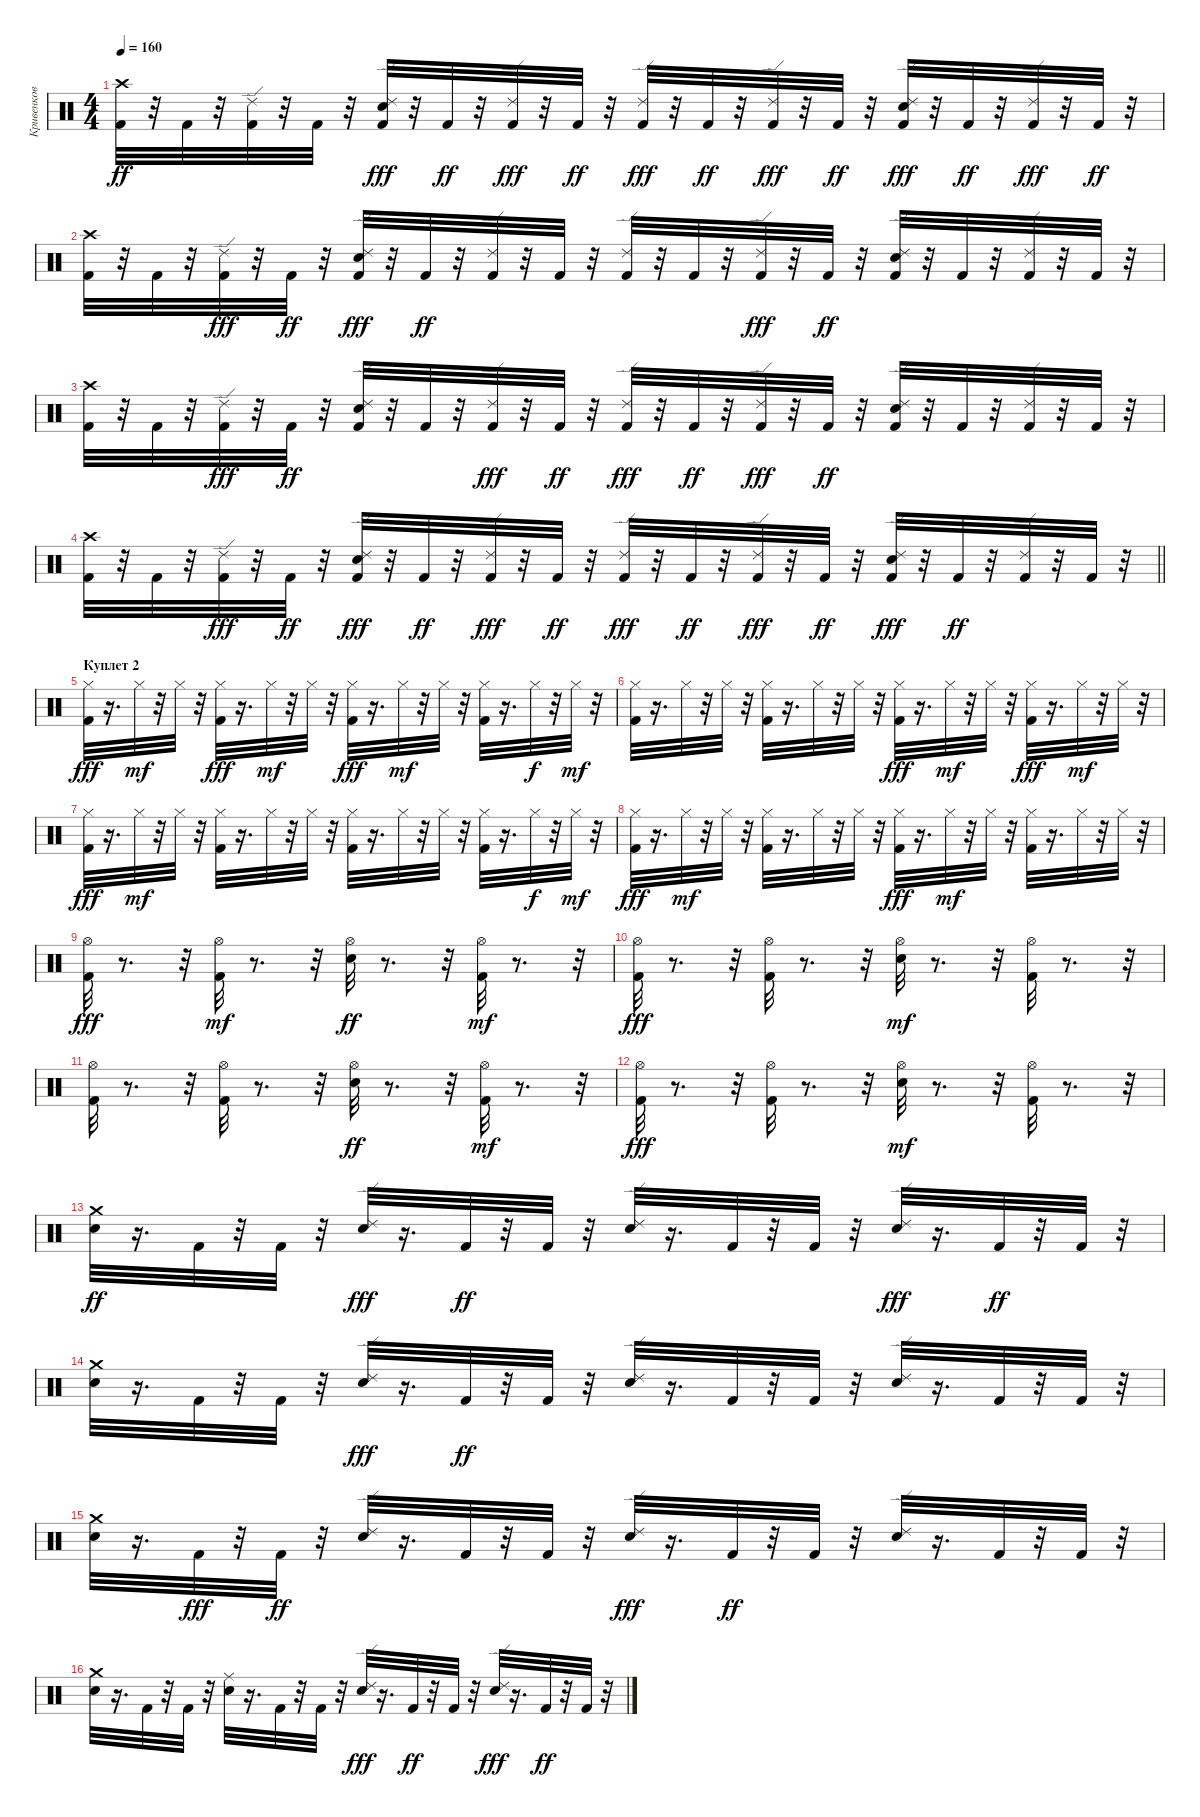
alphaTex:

\track ("Кривенков" "Кривенков") {instrument percussion}
\staff {score}
\articulation defaults
\ts (4 4)
\tempo 160
\clef neutral
\ks c
("Crash high (hit)" "Kick (hit) 2").32{dy ff} r.32 "Kick (hit) 2".32 r.32 ("Ride (edge) 2" "Kick (hit) 2").32 r.32 "Kick (hit) 2".32 r.32 ("Electric Snare (hit)" "Kick (hit) 2" "Ride (edge) 2").32{dy fff} r.32 "Kick (hit) 2".32{dy ff} r.32 ("Kick (hit) 2" "Ride (edge) 2").32{dy fff} r.32 "Kick (hit) 2".32{dy ff} r.32 ("Kick (hit) 2" "Ride (edge) 2").32{dy fff} r.32 "Kick (hit) 2".32{dy ff} r.32 ("Kick (hit) 2" "Ride (edge) 2").32{dy fff} r.32 "Kick (hit) 2".32{dy ff} r.32 ("Electric Snare (hit)" "Kick (hit) 2" "Ride (edge) 2").32{dy fff} r.32 "Kick (hit) 2".32{dy ff} r.32 ("Kick (hit) 2" "Ride (edge) 2").32{dy fff} r.32 "Kick (hit) 2".32{dy ff} r.32 |
("Crash high (hit)" "Kick (hit) 2").32 r.32 "Kick (hit) 2".32 r.32 ("Kick (hit) 2" "Ride (edge) 2").32{dy fff} r.32 "Kick (hit) 2".32{dy ff} r.32 ("Kick (hit) 2" "Electric Snare (hit)" "Ride (edge) 2").32{dy fff} r.32 "Kick (hit) 2".32{dy ff} r.32 ("Ride (edge) 2" "Kick (hit) 2").32 r.32 "Kick (hit) 2".32 r.32 ("Ride (edge) 2" "Kick (hit) 2").32 r.32 "Kick (hit) 2".32 r.32 ("Kick (hit) 2" "Ride (edge) 2").32{dy fff} r.32 "Kick (hit) 2".32{dy ff} r.32 ("Kick (hit) 2" "Ride (edge) 2" "Electric Snare (hit)").32 r.32 "Kick (hit) 2".32 r.32 ("Ride (edge) 2" "Kick (hit) 2").32 r.32 "Kick (hit) 2".32 r.32 |
("Crash high (hit)" "Kick (hit) 2").32 r.32 "Kick (hit) 2".32 r.32 ("Kick (hit) 2" "Ride (edge) 2").32{dy fff} r.32 "Kick (hit) 2".32{dy ff} r.32 ("Ride (edge) 2" "Electric Snare (hit)" "Kick (hit) 2").32 r.32 "Kick (hit) 2".32 r.32 ("Kick (hit) 2" "Ride (edge) 2").32{dy fff} r.32 "Kick (hit) 2".32{dy ff} r.32 ("Kick (hit) 2" "Ride (edge) 2").32{dy fff} r.32 "Kick (hit) 2".32{dy ff} r.32 ("Kick (hit) 2" "Ride (edge) 2").32{dy fff} r.32 "Kick (hit) 2".32{dy ff} r.32 ("Kick (hit) 2" "Ride (edge) 2" "Electric Snare (hit)").32 r.32 "Kick (hit) 2".32 r.32 ("Ride (edge) 2" "Kick (hit) 2").32 r.32 "Kick (hit) 2".32 r.32 |
\barLineRight lightlight
("Kick (hit) 2" "Crash high (hit)").32 r.32 "Kick (hit) 2".32 r.32 ("Kick (hit) 2" "Ride (edge) 2").32{dy fff} r.32 "Kick (hit) 2".32{dy ff} r.32 ("Electric Snare (hit)" "Kick (hit) 2" "Ride (edge) 2").32{dy fff} r.32 "Kick (hit) 2".32{dy ff} r.32 ("Kick (hit) 2" "Ride (edge) 2").32{dy fff} r.32 "Kick (hit) 2".32{dy ff} r.32 ("Kick (hit) 2" "Ride (edge) 2").32{dy fff} r.32 "Kick (hit) 2".32{dy ff} r.32 ("Kick (hit) 2" "Ride (edge) 2").32{dy fff} r.32 "Kick (hit) 2".32{dy ff} r.32 ("Electric Snare (hit)" "Kick (hit) 2" "Ride (edge) 2").32{dy fff} r.32 "Kick (hit) 2".32{dy ff} r.32 ("Ride (edge) 2" "Kick (hit) 2").32 r.32 "Kick (hit) 2".32 r.32 |
\section ("" "Куплет 2")
("Hi-Hat (closed)" "Kick (hit) 2").32{dy fff} r.16{d} "Hi-Hat (closed)".32{dy mf} r.32 "Hi-Hat (closed)".32 r.32 ("Hi-Hat (closed)" "Kick (hit) 2").32{dy fff} r.16{d} "Hi-Hat (closed)".32{dy mf} r.32 "Hi-Hat (closed)".32 r.32 ("Hi-Hat (closed)" "Kick (hit) 2").32{dy fff} r.16{d} "Hi-Hat (closed)".32{dy mf} r.32 "Hi-Hat (closed)".32 r.32 ("Kick (hit) 2" "Hi-Hat (closed)").32 r.16{d} "Hi-Hat (closed)".32{dy f} r.32 "Hi-Hat (closed)".32{dy mf} r.32 |
("Kick (hit) 2" "Hi-Hat (closed)").32 r.16{d} "Hi-Hat (closed)".32 r.32 "Hi-Hat (closed)".32 r.32 ("Kick (hit) 2" "Hi-Hat (closed)").32 r.16{d} "Hi-Hat (closed)".32 r.32 "Hi-Hat (closed)".32 r.32 ("Hi-Hat (closed)" "Kick (hit) 2").32{dy fff} r.16{d} "Hi-Hat (closed)".32{dy mf} r.32 "Hi-Hat (closed)".32 r.32 ("Hi-Hat (closed)" "Kick (hit) 2").32{dy fff} r.16{d} "Hi-Hat (closed)".32{dy mf} r.32 "Hi-Hat (closed)".32 r.32 |
("Hi-Hat (closed)" "Kick (hit) 2").32{dy fff} r.16{d} "Hi-Hat (closed)".32{dy mf} r.32 "Hi-Hat (closed)".32 r.32 ("Kick (hit) 2" "Hi-Hat (closed)").32 r.16{d} "Hi-Hat (closed)".32 r.32 "Hi-Hat (closed)".32 r.32 ("Kick (hit) 2" "Hi-Hat (closed)").32 r.16{d} "Hi-Hat (closed)".32 r.32 "Hi-Hat (closed)".32 r.32 ("Kick (hit) 2" "Hi-Hat (closed)").32 r.16{d} "Hi-Hat (closed)".32{dy f} r.32 "Hi-Hat (closed)".32{dy mf} r.32 |
("Hi-Hat (closed)" "Kick (hit) 2").32{dy fff} r.16{d} "Hi-Hat (closed)".32{dy mf} r.32 "Hi-Hat (closed)".32 r.32 ("Kick (hit) 2" "Hi-Hat (closed)").32 r.16{d} "Hi-Hat (closed)".32 r.32 "Hi-Hat (closed)".32 r.32 ("Hi-Hat (closed)" "Kick (hit) 2").32{dy fff} r.16{d} "Hi-Hat (closed)".32{dy mf} r.32 "Hi-Hat (closed)".32 r.32 ("Kick (hit) 2" "Hi-Hat (closed)").32 r.16{d} "Hi-Hat (closed)".32 r.32 "Hi-Hat (closed)".32 r.32 |
("Hi-Hat (open)" "Kick (hit) 2").32{dy fff} r.8{d} r.32 ("Kick (hit) 2" "Hi-Hat (open)").32{dy mf} r.8{d} r.32 ("Hi-Hat (open)" "Electric Snare (hit)").32{dy ff} r.8{d} r.32 ("Kick (hit) 2" "Hi-Hat (open)").32{dy mf} r.8{d} r.32 |
("Hi-Hat (open)" "Kick (hit) 2").32{dy fff} r.8{d} r.32 ("Hi-Hat (open)" "Kick (hit) 2").32 r.8{d} r.32 ("Electric Snare (hit)" "Hi-Hat (open)").32{dy mf} r.8{d} r.32 ("Kick (hit) 2" "Hi-Hat (open)").32 r.8{d} r.32 |
("Kick (hit) 2" "Hi-Hat (open)").32 r.8{d} r.32 ("Kick (hit) 2" "Hi-Hat (open)").32 r.8{d} r.32 ("Hi-Hat (open)" "Electric Snare (hit)").32{dy ff} r.8{d} r.32 ("Hi-Hat (open)" "Kick (hit) 2").32{dy mf} r.8{d} r.32 |
("Hi-Hat (open)" "Kick (hit) 2").32{dy fff} r.8{d} r.32 ("Hi-Hat (open)" "Kick (hit) 2").32 r.8{d} r.32 ("Electric Snare (hit)" "Hi-Hat (open)").32{dy mf} r.8{d} r.32 ("Kick (hit) 2" "Hi-Hat (open)").32 r.8{d} r.32 |
("Crash medium (hit)" "Electric Snare (hit)").32{dy ff} r.16{d} "Kick (hit) 2".32 r.32 "Kick (hit) 2".32 r.32 ("Electric Snare (hit)" "Ride (edge) 2").32{dy fff} r.16{d} "Kick (hit) 2".32{dy ff} r.32 "Kick (hit) 2".32 r.32 ("Ride (edge) 2" "Electric Snare (hit)").32 r.16{d} "Kick (hit) 2".32 r.32 "Kick (hit) 2".32 r.32 ("Electric Snare (hit)" "Ride (edge) 2").32{dy fff} r.16{d} "Kick (hit) 2".32{dy ff} r.32 "Kick (hit) 2".32 r.32 |
("Electric Snare (hit)" "Crash medium (hit)").32 r.16{d} "Kick (hit) 2".32 r.32 "Kick (hit) 2".32 r.32 ("Electric Snare (hit)" "Ride (edge) 2").32{dy fff} r.16{d} "Kick (hit) 2".32{dy ff} r.32 "Kick (hit) 2".32 r.32 ("Ride (edge) 2" "Electric Snare (hit)").32 r.16{d} "Kick (hit) 2".32 r.32 "Kick (hit) 2".32 r.32 ("Ride (edge) 2" "Electric Snare (hit)").32 r.16{d} "Kick (hit) 2".32 r.32 "Kick (hit) 2".32 r.32 |
("Electric Snare (hit)" "Crash medium (hit)").32 r.16{d} "Kick (hit) 2".32{dy fff} r.32 "Kick (hit) 2".32{dy ff} r.32 ("Ride (edge) 2" "Electric Snare (hit)").32 r.16{d} "Kick (hit) 2".32 r.32 "Kick (hit) 2".32 r.32 ("Electric Snare (hit)" "Ride (edge) 2").32{dy fff} r.16{d} "Kick (hit) 2".32{dy ff} r.32 "Kick (hit) 2".32 r.32 ("Ride (edge) 2" "Electric Snare (hit)").32 r.16{d} "Kick (hit) 2".32 r.32 "Kick (hit) 2".32 r.32 |
("Electric Snare (hit)" "Crash medium (hit)").32 r.16{d} "Kick (hit) 2".32 r.32 "Kick (hit) 2".32 r.32 ("Ride (middle)" "Electric Snare (hit)").32 r.16{d} "Kick (hit) 2".32 r.32 "Kick (hit) 2".32 r.32 ("Electric Snare (hit)" "Ride (edge) 2").32{dy fff} r.16{d} "Kick (hit) 2".32{dy ff} r.32 "Kick (hit) 2".32 r.32 ("Electric Snare (hit)" "Ride (edge) 2").32{dy fff} r.16{d} "Kick (hit) 2".32{dy ff} r.32 "Kick (hit) 2".32 r.32
